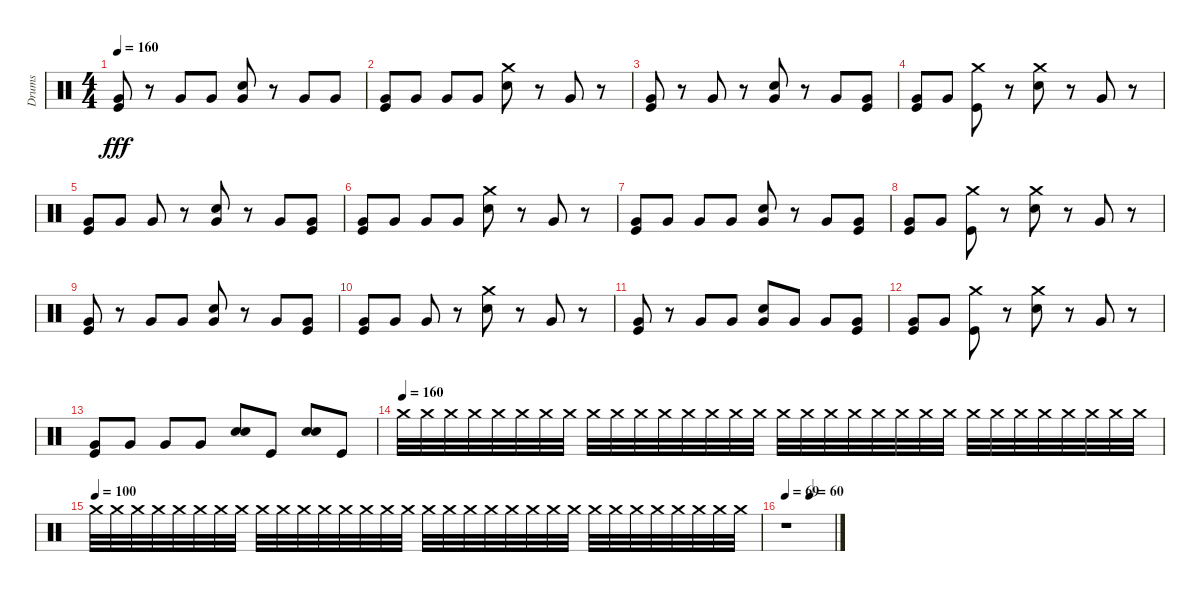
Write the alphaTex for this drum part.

\track ("Drums" "Drums") {instrument percussion}
\staff {score}
\articulation defaults
\ts (4 4)
\tempo 160
\clef neutral
\ks c
("Kick (hit)" "Very Low Tom (hit)").8{dy fff} r.8 "Very Low Tom (hit)".8 "Very Low Tom (hit)".8 ("Very Low Tom (hit)" "Snare (hit) 2").8 r.8 "Very Low Tom (hit)".8 "Very Low Tom (hit)".8 |
("Kick (hit)" "Very Low Tom (hit)").8 "Very Low Tom (hit)".8 "Very Low Tom (hit)".8 "Very Low Tom (hit)".8 ("Crash medium (hit)" "Snare (hit) 2").8 r.8 "Very Low Tom (hit)".8 r.8 |
("Kick (hit)" "Very Low Tom (hit)").8 r.8 "Very Low Tom (hit)".8 r.8 ("Very Low Tom (hit)" "Snare (hit) 2").8 r.8 "Very Low Tom (hit)".8 ("Kick (hit)" "Very Low Tom (hit)").8 |
("Kick (hit)" "Very Low Tom (hit)").8 "Very Low Tom (hit)".8 ("Crash medium (hit)" "Kick (hit)").8 r.8 ("Snare (hit) 2" "Crash medium (hit)").8 r.8 "Very Low Tom (hit)".8 r.8 |
("Kick (hit)" "Very Low Tom (hit)").8 "Very Low Tom (hit)".8 "Very Low Tom (hit)".8 r.8 ("Very Low Tom (hit)" "Snare (hit) 2").8 r.8 "Very Low Tom (hit)".8 ("Kick (hit)" "Very Low Tom (hit)").8 |
("Very Low Tom (hit)" "Kick (hit)").8 "Very Low Tom (hit)".8 "Very Low Tom (hit)".8 "Very Low Tom (hit)".8 ("Crash medium (hit)" "Snare (hit) 2").8 r.8 "Very Low Tom (hit)".8 r.8 |
("Kick (hit)" "Very Low Tom (hit)").8 "Very Low Tom (hit)".8 "Very Low Tom (hit)".8 "Very Low Tom (hit)".8 ("Very Low Tom (hit)" "Snare (hit) 2").8 r.8 "Very Low Tom (hit)".8 ("Kick (hit)" "Very Low Tom (hit)").8 |
("Very Low Tom (hit)" "Kick (hit)").8 "Very Low Tom (hit)".8 ("Crash medium (hit)" "Kick (hit)").8 r.8 ("Snare (hit) 2" "Crash medium (hit)").8 r.8 "Very Low Tom (hit)".8 r.8 |
("Kick (hit)" "Very Low Tom (hit)").8 r.8 "Very Low Tom (hit)".8 "Very Low Tom (hit)".8 ("Very Low Tom (hit)" "Snare (hit) 2").8 r.8 "Very Low Tom (hit)".8 ("Kick (hit)" "Very Low Tom (hit)").8 |
("Very Low Tom (hit)" "Kick (hit)").8 "Very Low Tom (hit)".8 "Very Low Tom (hit)".8 r.8 ("Crash medium (hit)" "Snare (hit) 2").8 r.8 "Very Low Tom (hit)".8 r.8 |
("Kick (hit)" "Very Low Tom (hit)").8 r.8 "Very Low Tom (hit)".8 "Very Low Tom (hit)".8 ("Very Low Tom (hit)" "Snare (hit) 2").8 "Very Low Tom (hit)".8 "Very Low Tom (hit)".8 ("Kick (hit)" "Very Low Tom (hit)").8 |
("Kick (hit)" "Very Low Tom (hit)").8 "Very Low Tom (hit)".8 ("Crash medium (hit)" "Kick (hit)").8 r.8 ("Snare (hit) 2" "Crash medium (hit)").8 r.8 "Very Low Tom (hit)".8 r.8 |
("Kick (hit)" "Very Low Tom (hit)").8 "Very Low Tom (hit)".8 "Very Low Tom (hit)".8 "Very Low Tom (hit)".8 ("Snare (hit) 2" "Snare (hit) 2").8 "Kick (hit)".8 ("Snare (hit) 2" "Snare (hit) 2").8 "Kick (hit)".8 |
\tempo (160)
"Crash medium (hit)".32 "Crash medium (hit)".32 "Crash medium (hit)".32 "Crash medium (hit)".32 "Crash medium (hit)".32 "Crash medium (hit)".32 "Crash medium (hit)".32 "Crash medium (hit)".32 "Crash medium (hit)".32 "Crash medium (hit)".32 "Crash medium (hit)".32 "Crash medium (hit)".32 "Crash medium (hit)".32 "Crash medium (hit)".32 "Crash medium (hit)".32 "Crash medium (hit)".32 "Crash medium (hit)".32 "Crash medium (hit)".32 "Crash medium (hit)".32 "Crash medium (hit)".32 "Crash medium (hit)".32 "Crash medium (hit)".32 "Crash medium (hit)".32 "Crash medium (hit)".32 "Crash medium (hit)".32 "Crash medium (hit)".32 "Crash medium (hit)".32 "Crash medium (hit)".32 "Crash medium (hit)".32 "Crash medium (hit)".32 "Crash medium (hit)".32 "Crash medium (hit)".32 |
\tempo (100)
"Crash medium (hit)".32 "Crash medium (hit)".32 "Crash medium (hit)".32 "Crash medium (hit)".32 "Crash medium (hit)".32 "Crash medium (hit)".32 "Crash medium (hit)".32 "Crash medium (hit)".32 "Crash medium (hit)".32 "Crash medium (hit)".32 "Crash medium (hit)".32 "Crash medium (hit)".32 "Crash medium (hit)".32 "Crash medium (hit)".32 "Crash medium (hit)".32 "Crash medium (hit)".32 "Crash medium (hit)".32 "Crash medium (hit)".32 "Crash medium (hit)".32 "Crash medium (hit)".32 "Crash medium (hit)".32 "Crash medium (hit)".32 "Crash medium (hit)".32 "Crash medium (hit)".32 "Crash medium (hit)".32 "Crash medium (hit)".32 "Crash medium (hit)".32 "Crash medium (hit)".32 "Crash medium (hit)".32 "Crash medium (hit)".32 "Crash medium (hit)".32 "Crash medium (hit)".32 |
\tempo 69
\tempo (60 0.5)
r.1
